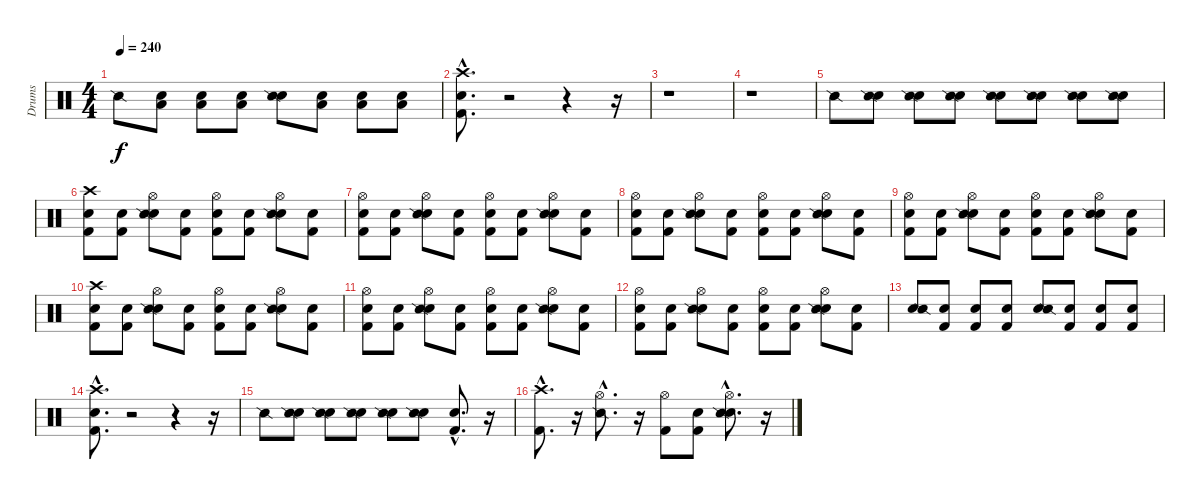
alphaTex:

\track ("Drums" "Drums") {instrument percussion}
\staff {score}
\articulation defaults
\ts (4 4)
\tempo 240
\clef neutral
\ks c "Snare (side stick) 2".8{dy f}
("Snare (hit)" "Low Tom (hit)").8 ("Snare (hit)" "Low Tom (hit)").8 ("Snare (hit)" "Low Tom (hit)").8 ("Snare (hit)" "Snare (side stick) 2").8 ("Snare (hit)" "Low Tom (hit)").8 ("Snare (hit)" "Low Tom (hit)").8 ("Snare (hit)" "Low Tom (hit)").8 |
("Snare (hit)"{hac} "Kick (hit) 2"{hac} "Crash high (hit)"{hac}).8{d} r.2 r.4 r.16 |
r.1 |
r.1 |
"Snare (side stick) 2".8 ("Snare (hit)" "Snare (side stick) 2").8 ("Snare (hit)" "Snare (side stick) 2").8 ("Snare (hit)" "Snare (side stick) 2").8 ("Snare (hit)" "Snare (side stick) 2").8 ("Snare (hit)" "Snare (side stick) 2").8 ("Snare (hit)" "Snare (side stick) 2").8 ("Snare (hit)" "Snare (side stick) 2").8 |
("Snare (hit)" "Kick (hit) 2" "Crash high (hit)").8 ("Snare (hit)" "Kick (hit) 2").8 ("Snare (hit)" "Hi-Hat (open)" "Snare (side stick) 2").8 ("Snare (hit)" "Kick (hit) 2").8 ("Snare (hit)" "Kick (hit) 2" "Hi-Hat (open)").8 ("Snare (hit)" "Kick (hit) 2").8 ("Snare (hit)" "Hi-Hat (open)" "Snare (side stick) 2").8 ("Snare (hit)" "Kick (hit) 2").8 |
("Snare (hit)" "Kick (hit) 2" "Hi-Hat (open)").8 ("Snare (hit)" "Kick (hit) 2").8 ("Snare (hit)" "Hi-Hat (open)" "Snare (side stick) 2").8 ("Snare (hit)" "Kick (hit) 2").8 ("Snare (hit)" "Kick (hit) 2" "Hi-Hat (open)").8 ("Snare (hit)" "Kick (hit) 2").8 ("Snare (hit)" "Hi-Hat (open)" "Snare (side stick) 2").8 ("Snare (hit)" "Kick (hit) 2").8 |
("Snare (hit)" "Kick (hit) 2" "Hi-Hat (open)").8 ("Snare (hit)" "Kick (hit) 2").8 ("Snare (hit)" "Hi-Hat (open)" "Snare (side stick) 2").8 ("Snare (hit)" "Kick (hit) 2").8 ("Snare (hit)" "Kick (hit) 2" "Hi-Hat (open)").8 ("Snare (hit)" "Kick (hit) 2").8 ("Snare (hit)" "Hi-Hat (open)" "Snare (side stick) 2").8 ("Snare (hit)" "Kick (hit) 2").8 |
("Snare (hit)" "Kick (hit) 2" "Hi-Hat (open)").8 ("Snare (hit)" "Kick (hit) 2").8 ("Snare (hit)" "Hi-Hat (open)" "Snare (side stick) 2").8 ("Snare (hit)" "Kick (hit) 2").8 ("Snare (hit)" "Kick (hit) 2" "Hi-Hat (open)").8 ("Snare (hit)" "Kick (hit) 2").8 ("Snare (hit)" "Hi-Hat (open)" "Snare (side stick) 2").8 ("Snare (hit)" "Kick (hit) 2").8 |
("Snare (hit)" "Kick (hit) 2" "Crash high (hit)").8 ("Snare (hit)" "Kick (hit) 2").8 ("Snare (hit)" "Hi-Hat (open)" "Snare (side stick) 2").8 ("Snare (hit)" "Kick (hit) 2").8 ("Snare (hit)" "Kick (hit) 2" "Hi-Hat (open)").8 ("Snare (hit)" "Kick (hit) 2").8 ("Snare (hit)" "Hi-Hat (open)" "Snare (side stick) 2").8 ("Snare (hit)" "Kick (hit) 2").8 |
("Snare (hit)" "Kick (hit) 2" "Hi-Hat (open)").8 ("Snare (hit)" "Kick (hit) 2").8 ("Snare (hit)" "Hi-Hat (open)" "Snare (side stick) 2").8 ("Snare (hit)" "Kick (hit) 2").8 ("Snare (hit)" "Kick (hit) 2" "Hi-Hat (open)").8 ("Snare (hit)" "Kick (hit) 2").8 ("Snare (hit)" "Hi-Hat (open)" "Snare (side stick) 2").8 ("Snare (hit)" "Kick (hit) 2").8 |
("Snare (hit)" "Kick (hit) 2" "Hi-Hat (open)").8 ("Snare (hit)" "Kick (hit) 2").8 ("Snare (hit)" "Hi-Hat (open)" "Snare (side stick) 2").8 ("Snare (hit)" "Kick (hit) 2").8 ("Snare (hit)" "Kick (hit) 2" "Hi-Hat (open)").8 ("Snare (hit)" "Kick (hit) 2").8 ("Snare (hit)" "Hi-Hat (open)" "Snare (side stick) 2").8 ("Snare (hit)" "Kick (hit) 2").8 |
("Snare (hit)" "Snare (side stick) 2").8 ("Snare (hit)" "Kick (hit) 2").8 ("Snare (hit)" "Kick (hit) 2").8 ("Snare (hit)" "Kick (hit) 2").8 ("Snare (hit)" "Snare (side stick) 2").8 ("Snare (hit)" "Kick (hit) 2").8 ("Snare (hit)" "Kick (hit) 2").8 ("Snare (hit)" "Kick (hit) 2").8 |
("Snare (hit)"{hac} "Kick (hit) 2"{hac} "Crash high (hit)"{hac}).8{d} r.2 r.4 r.16 |
"Snare (side stick) 2".8 ("Snare (hit)" "Snare (side stick) 2").8 ("Snare (hit)" "Snare (side stick) 2").8 ("Snare (hit)" "Snare (side stick) 2").8 ("Snare (hit)" "Snare (side stick) 2").8 ("Snare (hit)" "Snare (side stick) 2").8 ("Snare (hit)"{hac} "Kick (hit) 2"{hac}).8{d} r.16 |
("Kick (hit) 2"{hac} "Crash high (hit)"{hac}).8{d} r.16 ("Hi-Hat (open)"{hac} "Snare (side stick) 2"{hac}).8{d} r.16 ("Kick (hit) 2" "Hi-Hat (open)").8 ("Snare (hit)" "Kick (hit) 2").8 ("Snare (hit)"{hac} "Hi-Hat (open)"{hac} "Snare (side stick) 2"{hac}).8{d} r.16
